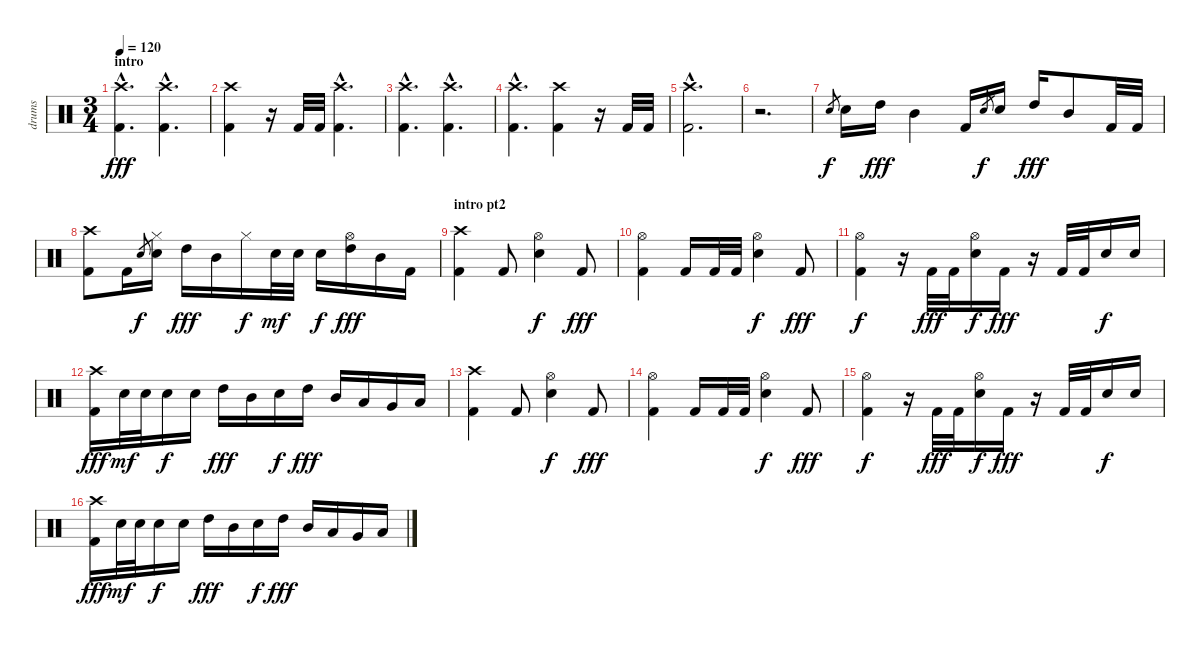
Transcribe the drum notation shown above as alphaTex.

\track ("drums" "drums") {instrument percussion}
\staff {score}
\articulation defaults
\ts (3 4)
\section ("" "intro")
\tempo 120
\clef neutral
\ks c
("Crash high (hit)"{hac} "Kick (hit) 2"{hac}).4{d dy fff} ("Crash high (hit)"{hac} "Kick (hit) 2"{hac}).4{d} |
("Crash high (hit)" "Kick (hit) 2").4 r.16 "Kick (hit) 2".32 "Kick (hit) 2".32 ("Crash high (hit)"{hac} "Kick (hit) 2"{hac}).4{d} |
("Crash high (hit)"{hac} "Kick (hit) 2"{hac}).4{d} ("Crash high (hit)"{hac} "Kick (hit) 2"{hac}).4{d} |
("Crash high (hit)"{hac} "Kick (hit) 2"{hac}).4{d} ("Crash high (hit)" "Kick (hit) 2").4 r.16 "Kick (hit) 2".32 "Kick (hit) 2".32 |
("Crash high (hit)"{hac} "Kick (hit) 2"{hac}).2{d} |
r.2{d} |
"Snare (hit) 2".8{gr dy f} "Snare (hit) 2".16 "High Tom (hit)".16{dy fff} "Mid Tom (hit)".4 "Kick (hit) 2".16 "Snare (hit) 2".8{gr dy f} "Snare (hit) 2".16 "High Tom (hit)".16{dy fff} "Mid Tom (hit)".8 "Kick (hit) 2".32 "Kick (hit) 2".32 |
("Crash high (hit)" "Kick (hit) 2").8 "Kick (hit) 2".16 "Snare (hit) 2".8{gr dy f} ("Hi-Hat (closed)" "Snare (hit) 2").16 "High Tom (hit)".16{dy fff} "Mid Tom (hit)".16 "Hi-Hat (closed)".16{dy f} "Snare (hit) 2".32{dy mf} "Snare (hit) 2".32 "Snare (hit) 2".16{dy f} ("Hi-Hat (open)" "High Tom (hit)").16{dy fff} "Mid Tom (hit)".16 "Kick (hit) 2".16 |
\section ("" "intro pt2")
("Crash high (hit)" "Kick (hit) 2").4 "Kick (hit) 2".8 ("Hi-Hat (open)" "Snare (hit) 2").4{dy f} "Kick (hit) 2".8{dy fff} |
("Hi-Hat (open)" "Kick (hit) 2").4 "Kick (hit) 2".16 "Kick (hit) 2".32 "Kick (hit) 2".32 ("Hi-Hat (open)" "Snare (hit) 2").4{dy f} "Kick (hit) 2".8{dy fff} |
("Hi-Hat (open)" "Kick (hit) 2").4{dy f} r.16 "Kick (hit) 2".32{dy fff} "Kick (hit) 2".32 ("Hi-Hat (open)" "Snare (hit) 2").16{dy f} "Kick (hit) 2".16{dy fff} r.16 "Kick (hit) 2".32 "Kick (hit) 2".32 "Snare (hit) 2".16{dy f} "Snare (hit) 2".16 |
("Crash high (hit)" "Kick (hit) 2").16{dy fff} "Snare (hit) 2".32{dy mf} "Snare (hit) 2".32 "Snare (hit) 2".16{dy f} "Snare (hit) 2".16 "High Tom (hit)".16{dy fff} "Mid Tom (hit)".16 "Snare (hit) 2".16{dy f} "High Tom (hit)".16{dy fff} "Mid Tom (hit)".16 "Low Tom (hit)".16 "Very Low Tom (hit)".16 "Low Floor Tom (hit)".16 |
("Crash high (hit)" "Kick (hit) 2").4 "Kick (hit) 2".8 ("Hi-Hat (open)" "Snare (hit) 2").4{dy f} "Kick (hit) 2".8{dy fff} |
("Hi-Hat (open)" "Kick (hit) 2").4 "Kick (hit) 2".16 "Kick (hit) 2".32 "Kick (hit) 2".32 ("Hi-Hat (open)" "Snare (hit) 2").4{dy f} "Kick (hit) 2".8{dy fff} |
("Hi-Hat (open)" "Kick (hit) 2").4{dy f} r.16 "Kick (hit) 2".32{dy fff} "Kick (hit) 2".32 ("Hi-Hat (open)" "Snare (hit) 2").16{dy f} "Kick (hit) 2".16{dy fff} r.16 "Kick (hit) 2".32 "Kick (hit) 2".32 "Snare (hit) 2".16{dy f} "Snare (hit) 2".16 |
("Crash high (hit)" "Kick (hit) 2").16{dy fff} "Snare (hit) 2".32{dy mf} "Snare (hit) 2".32 "Snare (hit) 2".16{dy f} "Snare (hit) 2".16 "High Tom (hit)".16{dy fff} "Mid Tom (hit)".16 "Snare (hit) 2".16{dy f} "High Tom (hit)".16{dy fff} "Mid Tom (hit)".16 "Low Tom (hit)".16 "Very Low Tom (hit)".16 "Low Floor Tom (hit)".16
